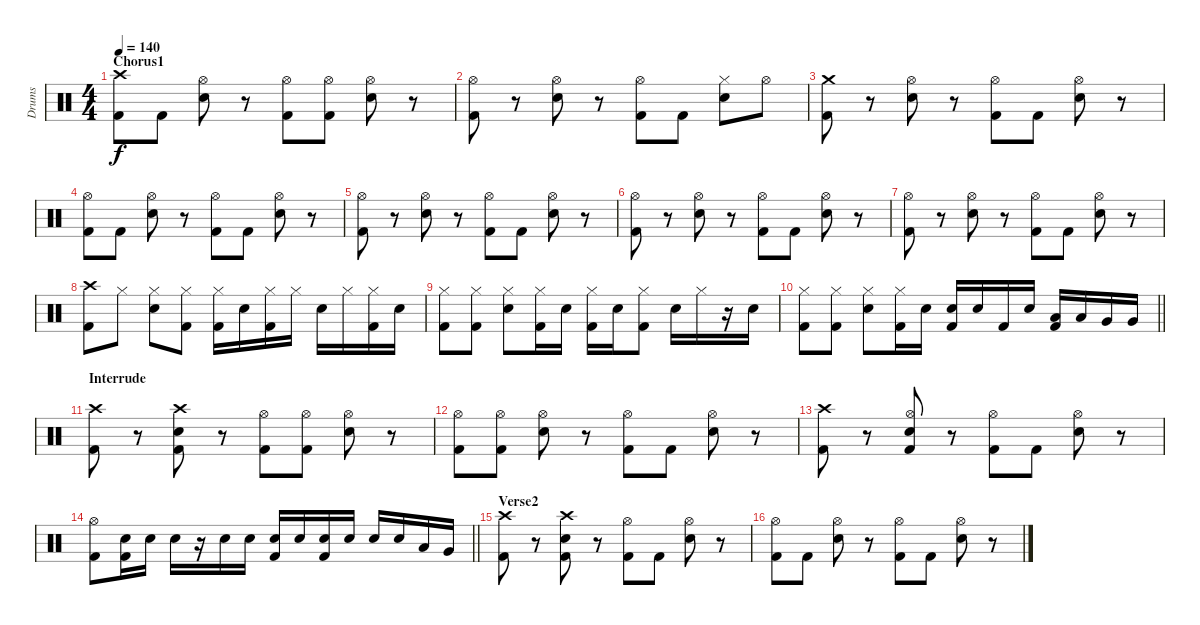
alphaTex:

\track ("Drums" "Drums") {instrument percussion}
\staff {score}
\articulation defaults
\ts (4 4)
\section ("" "Chorus1")
\tempo 140
\clef neutral
\ks c
("Crash high (hit)" "Kick (hit) 2").8{dy f} "Kick (hit) 2".8 ("Hi-Hat (open)" "Snare (hit) 2").8 r.8 ("Hi-Hat (open)" "Kick (hit) 2").8 ("Hi-Hat (open)" "Kick (hit) 2").8 ("Hi-Hat (open)" "Snare (hit) 2").8 r.8 |
("Hi-Hat (open)" "Kick (hit) 2").8 r.8 ("Hi-Hat (open)" "Snare (hit) 2").8 r.8 ("Hi-Hat (open)" "Kick (hit) 2").8 "Kick (hit) 2".8 ("Hi-Hat (closed)" "Snare (hit) 2").8 "Hi-Hat (open)".8 |
("Crash medium (hit)" "Kick (hit) 2").8 r.8 ("Hi-Hat (open)" "Snare (hit) 2").8 r.8 ("Hi-Hat (open)" "Kick (hit) 2").8 "Kick (hit) 2".8 ("Hi-Hat (open)" "Snare (hit) 2").8 r.8 |
("Hi-Hat (open)" "Kick (hit) 2").8 "Kick (hit) 2".8 ("Hi-Hat (open)" "Snare (hit) 2").8 r.8 ("Hi-Hat (open)" "Kick (hit) 2").8 "Kick (hit) 2".8 ("Hi-Hat (open)" "Snare (hit) 2").8 r.8 |
("Hi-Hat (open)" "Kick (hit) 2").8 r.8 ("Hi-Hat (open)" "Snare (hit) 2").8 r.8 ("Hi-Hat (open)" "Kick (hit) 2").8 "Kick (hit) 2".8 ("Hi-Hat (open)" "Snare (hit) 2").8 r.8 |
("Hi-Hat (open)" "Kick (hit) 2").8 r.8 ("Hi-Hat (open)" "Snare (hit) 2").8 r.8 ("Hi-Hat (open)" "Kick (hit) 2").8 "Kick (hit) 2".8 ("Hi-Hat (open)" "Snare (hit) 2").8 r.8 |
("Hi-Hat (open)" "Kick (hit) 2").8 r.8 ("Hi-Hat (open)" "Snare (hit) 2").8 r.8 ("Hi-Hat (open)" "Kick (hit) 2").8 "Kick (hit) 2".8 ("Hi-Hat (open)" "Snare (hit) 2").8 r.8 |
("Crash high (hit)" "Kick (hit) 2").8 "Hi-Hat (closed)".8 ("Hi-Hat (closed)" "Snare (hit) 2").8 ("Hi-Hat (closed)" "Kick (hit) 2").8 ("Hi-Hat (closed)" "Kick (hit) 2").16 "Snare (hit) 2".16 ("Hi-Hat (closed)" "Kick (hit) 2").16 "Hi-Hat (closed)".16 "Snare (hit) 2".16 "Hi-Hat (closed)".16 ("Hi-Hat (closed)" "Kick (hit) 2").16 "Snare (hit) 2".16 |
("Hi-Hat (closed)" "Kick (hit) 2").8 ("Hi-Hat (closed)" "Kick (hit) 2").8 ("Hi-Hat (closed)" "Snare (hit) 2").8 ("Hi-Hat (closed)" "Kick (hit) 2").16 "Snare (hit) 2".16 ("Hi-Hat (closed)" "Kick (hit) 2").16 "Snare (hit) 2".16 ("Hi-Hat (closed)" "Kick (hit) 2").8 "Snare (hit) 2".16 "Hi-Hat (closed)".16 r.16 "Snare (hit) 2".16 |
\barLineRight lightlight
("Hi-Hat (closed)" "Kick (hit) 2").8 ("Hi-Hat (closed)" "Kick (hit) 2").8 ("Hi-Hat (closed)" "Snare (hit) 2").8 ("Hi-Hat (closed)" "Kick (hit) 2").16 "Snare (hit) 2".16 ("Snare (hit) 2" "Kick (hit) 2").16 "Snare (hit) 2".16 "Kick (hit) 2".16 "Snare (hit) 2".16 ("Low Tom (hit)" "Kick (hit) 2").16 "Low Tom (hit)".16 "Very Low Tom (hit)".16 "Very Low Tom (hit)".16 |
\section ("" "Interrude")
("Crash high (hit)" "Kick (hit) 2").8 r.8 ("Crash high (hit)" "Snare (hit) 2" "Kick (hit) 2").8 r.8 ("Hi-Hat (open)" "Kick (hit) 2").8 ("Hi-Hat (open)" "Kick (hit) 2").8 ("Hi-Hat (open)" "Snare (hit) 2").8 r.8 |
("Hi-Hat (open)" "Kick (hit) 2").8 ("Hi-Hat (open)" "Kick (hit) 2").8 ("Hi-Hat (open)" "Snare (hit) 2").8 r.8 ("Hi-Hat (open)" "Kick (hit) 2").8 "Kick (hit) 2".8 ("Hi-Hat (open)" "Snare (hit) 2").8 r.8 |
("Crash high (hit)" "Kick (hit) 2").8 r.8 ("Hi-Hat (open)" "Snare (hit) 2" "Kick (hit) 2").8 r.8 ("Hi-Hat (open)" "Kick (hit) 2").8 "Kick (hit) 2".8 ("Hi-Hat (open)" "Snare (hit) 2").8 r.8 |
\barLineRight lightlight
("Hi-Hat (open)" "Kick (hit) 2").8 ("Snare (hit) 2" "Kick (hit) 2").16 "Snare (hit) 2".16 "Snare (hit) 2".16 r.16 "Snare (hit) 2".16 "Snare (hit) 2".16 ("Snare (hit) 2" "Kick (hit) 2").16 "Snare (hit) 2".16 ("Snare (hit) 2" "Kick (hit) 2").16 "Snare (hit) 2".16 "Snare (hit) 2".16 "Snare (hit) 2".16 "Low Tom (hit)".16 "Very Low Tom (hit)".16 |
\section ("" "Verse2")
("Crash high (hit)" "Kick (hit) 2").8 r.8 ("Crash high (hit)" "Snare (hit) 2" "Kick (hit) 2").8 r.8 ("Hi-Hat (open)" "Kick (hit) 2").8 "Kick (hit) 2".8 ("Hi-Hat (open)" "Snare (hit) 2").8 r.8 |
("Hi-Hat (open)" "Kick (hit) 2").8 "Kick (hit) 2".8 ("Hi-Hat (open)" "Snare (hit) 2").8 r.8 ("Hi-Hat (open)" "Kick (hit) 2").8 "Kick (hit) 2".8 ("Hi-Hat (open)" "Snare (hit) 2").8 r.8
